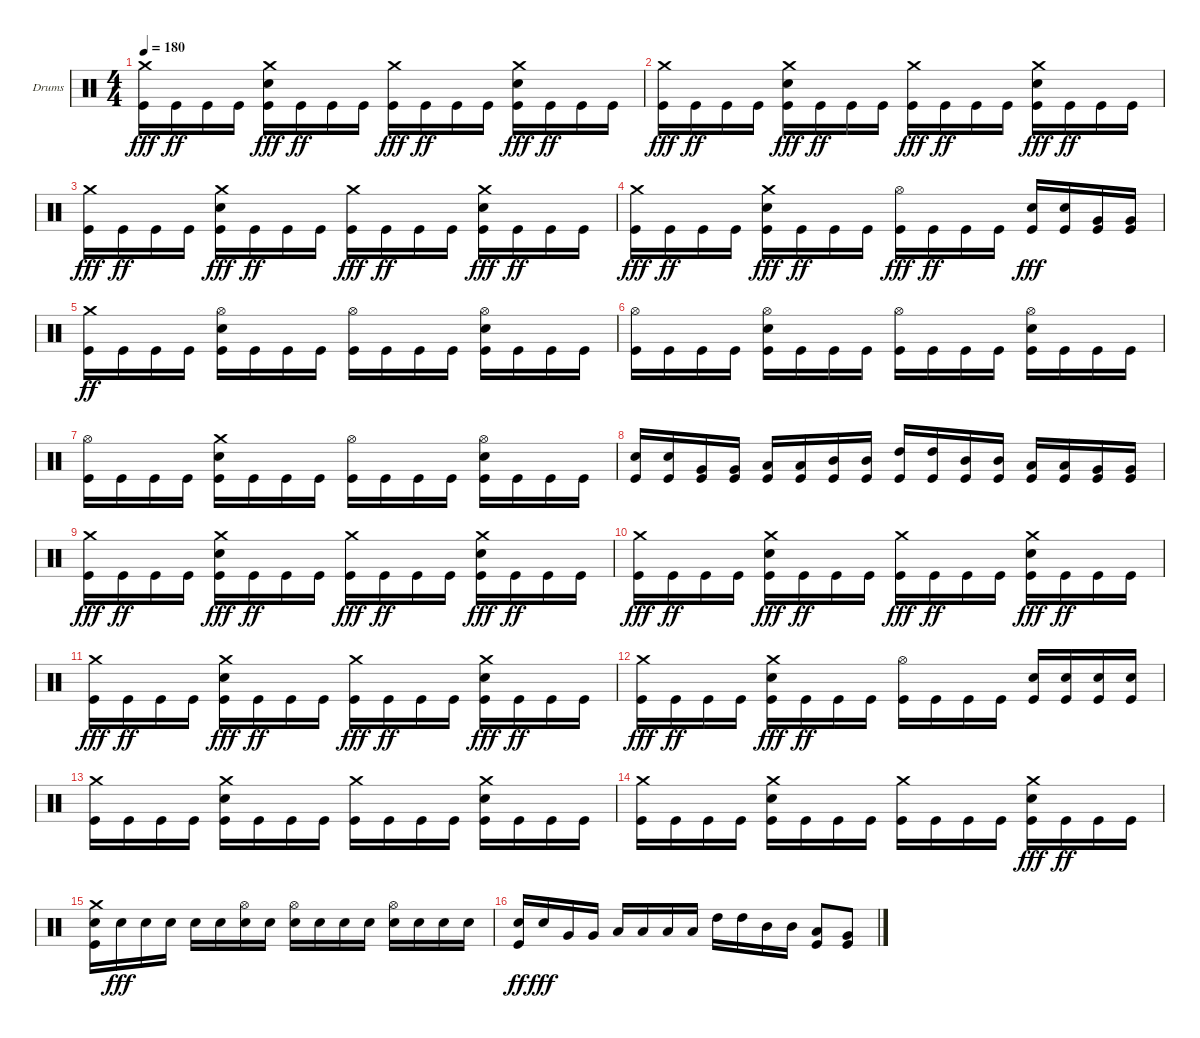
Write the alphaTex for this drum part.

\bracketExtendMode groupsimilarinstruments
\firstSystemTrackNameOrientation horizontal
\otherSystemsTrackNameOrientation horizontal
\track ("Drumkit" "Drums") {instrument percussion}
\staff {score}
\articulation defaults
\ts (4 4)
\tempo 180
\clef neutral
\ks c
("Crash medium (hit)" "Kick (hit)").16{dy fff} "Kick (hit)".16{dy ff} "Kick (hit)".16 "Kick (hit)".16 ("Crash medium (hit)" "Snare (hit) 2" "Kick (hit)").16{dy fff} "Kick (hit)".16{dy ff} "Kick (hit)".16 "Kick (hit)".16 ("Crash medium (hit)" "Kick (hit)").16{dy fff} "Kick (hit)".16{dy ff} "Kick (hit)".16 "Kick (hit)".16 ("Crash medium (hit)" "Snare (hit) 2" "Kick (hit)").16{dy fff} "Kick (hit)".16{dy ff} "Kick (hit)".16 "Kick (hit)".16 |
("Crash medium (hit)" "Kick (hit)").16{dy fff} "Kick (hit)".16{dy ff} "Kick (hit)".16 "Kick (hit)".16 ("Crash medium (hit)" "Snare (hit) 2" "Kick (hit)").16{dy fff} "Kick (hit)".16{dy ff} "Kick (hit)".16 "Kick (hit)".16 ("Crash medium (hit)" "Kick (hit)").16{dy fff} "Kick (hit)".16{dy ff} "Kick (hit)".16 "Kick (hit)".16 ("Crash medium (hit)" "Snare (hit) 2" "Kick (hit)").16{dy fff} "Kick (hit)".16{dy ff} "Kick (hit)".16 "Kick (hit)".16 |
("Crash medium (hit)" "Kick (hit)").16{dy fff} "Kick (hit)".16{dy ff} "Kick (hit)".16 "Kick (hit)".16 ("Crash medium (hit)" "Snare (hit) 2" "Kick (hit)").16{dy fff} "Kick (hit)".16{dy ff} "Kick (hit)".16 "Kick (hit)".16 ("Crash medium (hit)" "Kick (hit)").16{dy fff} "Kick (hit)".16{dy ff} "Kick (hit)".16 "Kick (hit)".16 ("Crash medium (hit)" "Snare (hit) 2" "Kick (hit)").16{dy fff} "Kick (hit)".16{dy ff} "Kick (hit)".16 "Kick (hit)".16 |
("Crash medium (hit)" "Kick (hit)").16{dy fff} "Kick (hit)".16{dy ff} "Kick (hit)".16 "Kick (hit)".16 ("Crash medium (hit)" "Kick (hit)" "Snare (hit) 2").16{dy fff} "Kick (hit)".16{dy ff} "Kick (hit)".16 "Kick (hit)".16 ("Hi-Hat (open)" "Kick (hit)").16{dy fff} "Kick (hit)".16{dy ff} "Kick (hit)".16 "Kick (hit)".16 ("Snare (hit) 2" "Kick (hit)").16{dy fff} ("Snare (hit) 2" "Kick (hit)").16 ("Very Low Tom (hit)" "Kick (hit)").16 ("Very Low Tom (hit)" "Kick (hit)").16 |
("Kick (hit)" "Crash medium (hit)").16{dy ff} "Kick (hit)".16 "Kick (hit)".16 "Kick (hit)".16 ("Kick (hit)" "Snare (hit) 2" "Hi-Hat (open)").16 "Kick (hit)".16 "Kick (hit)".16 "Kick (hit)".16 ("Kick (hit)" "Hi-Hat (open)").16 "Kick (hit)".16 "Kick (hit)".16 "Kick (hit)".16 ("Kick (hit)" "Snare (hit) 2" "Hi-Hat (open)").16 "Kick (hit)".16 "Kick (hit)".16 "Kick (hit)".16 |
("Kick (hit)" "Hi-Hat (open)").16 "Kick (hit)".16 "Kick (hit)".16 "Kick (hit)".16 ("Kick (hit)" "Snare (hit) 2" "Hi-Hat (open)").16 "Kick (hit)".16 "Kick (hit)".16 "Kick (hit)".16 ("Kick (hit)" "Hi-Hat (open)").16 "Kick (hit)".16 "Kick (hit)".16 "Kick (hit)".16 ("Kick (hit)" "Snare (hit) 2" "Hi-Hat (open)").16 "Kick (hit)".16 "Kick (hit)".16 "Kick (hit)".16 |
("Kick (hit)" "Hi-Hat (open)").16 "Kick (hit)".16 "Kick (hit)".16 "Kick (hit)".16 ("Kick (hit)" "Snare (hit) 2" "Crash medium (hit)").16 "Kick (hit)".16 "Kick (hit)".16 "Kick (hit)".16 ("Kick (hit)" "Hi-Hat (open)").16 "Kick (hit)".16 "Kick (hit)".16 "Kick (hit)".16 ("Kick (hit)" "Snare (hit) 2" "Hi-Hat (open)").16 "Kick (hit)".16 "Kick (hit)".16 "Kick (hit)".16 |
("Kick (hit)" "Snare (hit) 2").16 ("Kick (hit)" "Snare (hit) 2").16 ("Kick (hit)" "Very Low Tom (hit)").16 ("Kick (hit)" "Very Low Tom (hit)").16 ("Kick (hit)" "Low Tom (hit)").16 ("Kick (hit)" "Low Tom (hit)").16 ("Kick (hit)" "Mid Tom (hit)").16 ("Kick (hit)" "Mid Tom (hit)").16 ("Kick (hit)" "High Tom (hit)").16 ("Kick (hit)" "High Tom (hit)").16 ("Kick (hit)" "Mid Tom (hit)").16 ("Kick (hit)" "Mid Tom (hit)").16 ("Kick (hit)" "Low Tom (hit)").16 ("Kick (hit)" "Low Tom (hit)").16 ("Kick (hit)" "Very Low Tom (hit)").16 ("Kick (hit)" "Very Low Tom (hit)").16 |
("Crash medium (hit)" "Kick (hit)").16{dy fff} "Kick (hit)".16{dy ff} "Kick (hit)".16 "Kick (hit)".16 ("Crash medium (hit)" "Snare (hit) 2" "Kick (hit)").16{dy fff} "Kick (hit)".16{dy ff} "Kick (hit)".16 "Kick (hit)".16 ("Crash medium (hit)" "Kick (hit)").16{dy fff} "Kick (hit)".16{dy ff} "Kick (hit)".16 "Kick (hit)".16 ("Crash medium (hit)" "Snare (hit) 2" "Kick (hit)").16{dy fff} "Kick (hit)".16{dy ff} "Kick (hit)".16 "Kick (hit)".16 |
("Crash medium (hit)" "Kick (hit)").16{dy fff} "Kick (hit)".16{dy ff} "Kick (hit)".16 "Kick (hit)".16 ("Crash medium (hit)" "Snare (hit) 2" "Kick (hit)").16{dy fff} "Kick (hit)".16{dy ff} "Kick (hit)".16 "Kick (hit)".16 ("Crash medium (hit)" "Kick (hit)").16{dy fff} "Kick (hit)".16{dy ff} "Kick (hit)".16 "Kick (hit)".16 ("Crash medium (hit)" "Snare (hit) 2" "Kick (hit)").16{dy fff} "Kick (hit)".16{dy ff} "Kick (hit)".16 "Kick (hit)".16 |
("Crash medium (hit)" "Kick (hit)").16{dy fff} "Kick (hit)".16{dy ff} "Kick (hit)".16 "Kick (hit)".16 ("Crash medium (hit)" "Snare (hit) 2" "Kick (hit)").16{dy fff} "Kick (hit)".16{dy ff} "Kick (hit)".16 "Kick (hit)".16 ("Crash medium (hit)" "Kick (hit)").16{dy fff} "Kick (hit)".16{dy ff} "Kick (hit)".16 "Kick (hit)".16 ("Crash medium (hit)" "Snare (hit) 2" "Kick (hit)").16{dy fff} "Kick (hit)".16{dy ff} "Kick (hit)".16 "Kick (hit)".16 |
("Crash medium (hit)" "Kick (hit)").16{dy fff} "Kick (hit)".16{dy ff} "Kick (hit)".16 "Kick (hit)".16 ("Crash medium (hit)" "Kick (hit)" "Snare (hit) 2").16{dy fff} "Kick (hit)".16{dy ff} "Kick (hit)".16 "Kick (hit)".16 ("Kick (hit)" "Hi-Hat (open)").16 "Kick (hit)".16 "Kick (hit)".16 "Kick (hit)".16 ("Kick (hit)" "Snare (hit) 2").16 ("Kick (hit)" "Snare (hit) 2").16 ("Kick (hit)" "Snare (hit) 2").16 ("Kick (hit)" "Snare (hit) 2").16 |
("Kick (hit)" "Crash medium (hit)").16 "Kick (hit)".16 "Kick (hit)".16 "Kick (hit)".16 ("Kick (hit)" "Snare (hit) 2" "Crash medium (hit)").16 "Kick (hit)".16 "Kick (hit)".16 "Kick (hit)".16 ("Kick (hit)" "Crash medium (hit)").16 "Kick (hit)".16 "Kick (hit)".16 "Kick (hit)".16 ("Kick (hit)" "Snare (hit) 2" "Crash medium (hit)").16 "Kick (hit)".16 "Kick (hit)".16 "Kick (hit)".16 |
("Kick (hit)" "Crash medium (hit)").16 "Kick (hit)".16 "Kick (hit)".16 "Kick (hit)".16 ("Kick (hit)" "Snare (hit) 2" "Crash medium (hit)").16 "Kick (hit)".16 "Kick (hit)".16 "Kick (hit)".16 ("Kick (hit)" "Crash medium (hit)").16 "Kick (hit)".16 "Kick (hit)".16 "Kick (hit)".16 ("Snare (hit) 2" "Crash medium (hit)" "Kick (hit)").16{dy fff} "Kick (hit)".16{dy ff} "Kick (hit)".16 "Kick (hit)".16 |
("Kick (hit)" "Crash medium (hit)" "Snare (hit) 2").16 "Snare (hit) 2".16{dy fff} "Snare (hit) 2".16 "Snare (hit) 2".16 "Snare (hit) 2".16 "Snare (hit) 2".16 ("Hi-Hat (open)" "Snare (hit) 2").16 "Snare (hit) 2".16 ("Hi-Hat (open)" "Snare (hit) 2").16 "Snare (hit) 2".16 "Snare (hit) 2".16 "Snare (hit) 2".16 ("Hi-Hat (open)" "Snare (hit) 2").16 "Snare (hit) 2".16 "Snare (hit) 2".16 "Snare (hit) 2".16 |
("Kick (hit)" "Snare (hit) 2").16{dy ff} "Snare (hit) 2".16{dy fff} "Very Low Tom (hit)".16 "Very Low Tom (hit)".16 "Low Tom (hit)".16 "Low Tom (hit)".16 "Low Tom (hit)".16 "Low Tom (hit)".16 "High Tom (hit)".16 "High Tom (hit)".16 "Mid Tom (hit)".16 "Mid Tom (hit)".16 ("Low Tom (hit)" "Kick (hit)").8 ("Very Low Tom (hit)" "Kick (hit)").8
